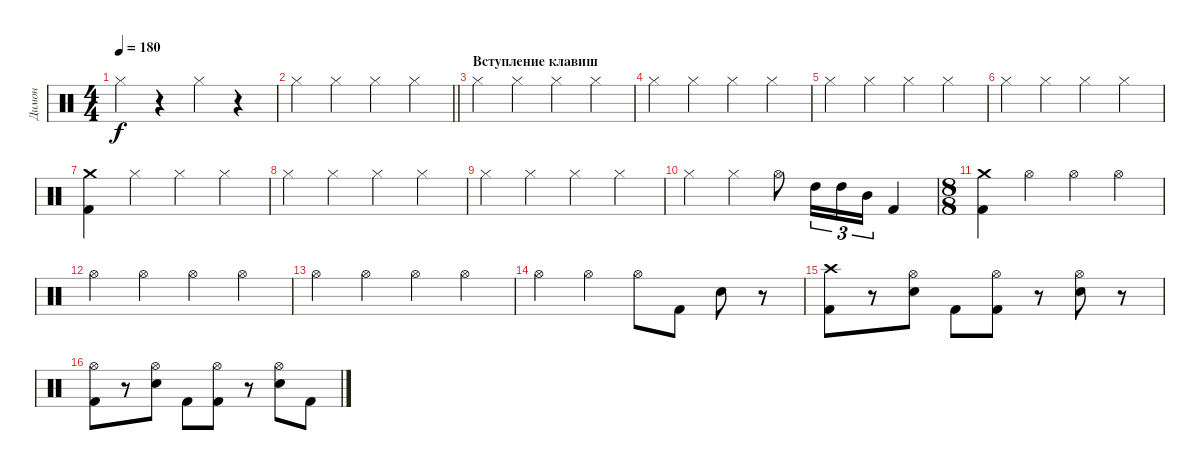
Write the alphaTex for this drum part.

\track ("Димон" "Димон") {instrument percussion}
\staff {score}
\articulation defaults
\ts (4 4)
\tempo 180
\clef neutral
\ks c "Hi-Hat (closed)".4{dy f}
r.4 "Hi-Hat (closed)".4 r.4 |
\barLineRight lightlight "Hi-Hat (closed)".4 "Hi-Hat (closed)".4 "Hi-Hat (closed)".4 "Hi-Hat (closed)".4
|
\section ("" "Вступление клавиш")
"Hi-Hat (closed)".4 "Hi-Hat (closed)".4 "Hi-Hat (closed)".4 "Hi-Hat (closed)".4 |
"Hi-Hat (closed)".4 "Hi-Hat (closed)".4 "Hi-Hat (closed)".4 "Hi-Hat (closed)".4 |
"Hi-Hat (closed)".4 "Hi-Hat (closed)".4 "Hi-Hat (closed)".4 "Hi-Hat (closed)".4 |
"Hi-Hat (closed)".4 "Hi-Hat (closed)".4 "Hi-Hat (closed)".4 "Hi-Hat (closed)".4 |
("Kick (hit) 2" "Crash medium (hit)").4 "Hi-Hat (closed)".4 "Hi-Hat (closed)".4 "Hi-Hat (closed)".4 |
"Hi-Hat (closed)".4 "Hi-Hat (closed)".4 "Hi-Hat (closed)".4 "Hi-Hat (closed)".4 |
"Hi-Hat (closed)".4 "Hi-Hat (closed)".4 "Hi-Hat (closed)".4 "Hi-Hat (closed)".4 |
"Hi-Hat (closed)".4 "Hi-Hat (closed)".4 "Hi-Hat (open)".8 "High Tom (hit)".16{tu (3 2)} "High Tom (hit)".16{tu (3 2)} "Mid Tom (hit)".16{tu (3 2)} "Kick (hit) 2".4 |
\ts (8 8)
("Crash medium (hit)" "Kick (hit) 2").4 "Hi-Hat (open)".4 "Hi-Hat (open)".4 "Hi-Hat (open)".4 |
"Hi-Hat (open)".4 "Hi-Hat (open)".4 "Hi-Hat (open)".4 "Hi-Hat (open)".4 |
"Hi-Hat (open)".4 "Hi-Hat (open)".4 "Hi-Hat (open)".4 "Hi-Hat (open)".4 |
"Hi-Hat (open)".4 "Hi-Hat (open)".4 "Hi-Hat (open)".8 "Kick (hit) 2".8 "Electric Snare (hit)".8 r.8 |
("Kick (hit) 2" "Crash high (hit)").8 r.8 ("Electric Snare (hit)" "Hi-Hat (open)").8 "Kick (hit) 2".8 ("Kick (hit) 2" "Hi-Hat (open)").8 r.8 ("Electric Snare (hit)" "Hi-Hat (open)").8 r.8 |
("Kick (hit) 2" "Hi-Hat (open)").8 r.8 ("Electric Snare (hit)" "Hi-Hat (open)").8 "Kick (hit) 2".8 ("Kick (hit) 2" "Hi-Hat (open)").8 r.8 ("Electric Snare (hit)" "Hi-Hat (open)").8 "Kick (hit) 2".8
